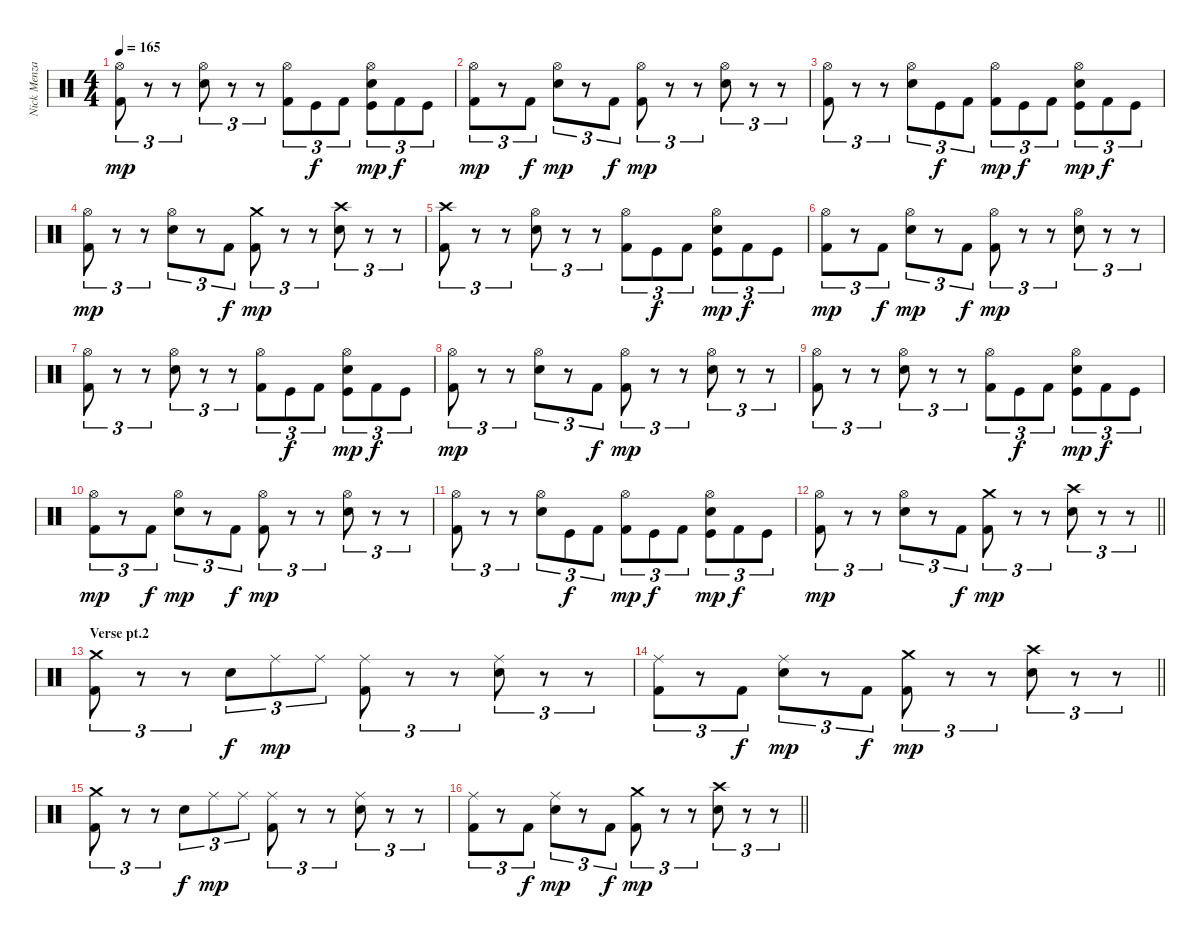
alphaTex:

\track ("Nick Menza" "Nick Menza") {solo instrument percussion}
\staff {score}
\articulation defaults
\ts (4 4)
\tempo 165
\clef neutral
\ks c
("Hi-Hat (open)" "Kick (hit) 2").8{tu (3 2) dy mp} r.8{tu (3 2)} r.8{tu (3 2)} ("Hi-Hat (open)" "Electric Snare (hit)").8{tu (3 2)} r.8{tu (3 2)} r.8{tu (3 2)} ("Hi-Hat (open)" "Kick (hit) 2").8{tu (3 2)} "Kick (hit)".8{tu (3 2) dy f} "Kick (hit) 2".8{tu (3 2)} ("Hi-Hat (open)" "Electric Snare (hit)" "Kick (hit)").8{tu (3 2) dy mp} "Kick (hit) 2".8{tu (3 2) dy f} "Kick (hit)".8{tu (3 2)} |
("Hi-Hat (open)" "Kick (hit) 2").8{tu (3 2) dy mp} r.8{tu (3 2)} "Kick (hit) 2".8{tu (3 2) dy f} ("Hi-Hat (open)" "Electric Snare (hit)").8{tu (3 2) dy mp} r.8{tu (3 2)} "Kick (hit) 2".8{tu (3 2) dy f} ("Hi-Hat (open)" "Kick (hit) 2").8{tu (3 2) dy mp} r.8{tu (3 2)} r.8{tu (3 2)} ("Hi-Hat (open)" "Electric Snare (hit)").8{tu (3 2)} r.8{tu (3 2)} r.8{tu (3 2)} |
("Hi-Hat (open)" "Kick (hit) 2").8{tu (3 2)} r.8{tu (3 2)} r.8{tu (3 2)} ("Hi-Hat (open)" "Electric Snare (hit)").8{tu (3 2)} "Kick (hit)".8{tu (3 2) dy f} "Kick (hit) 2".8{tu (3 2)} ("Hi-Hat (open)" "Kick (hit) 2").8{tu (3 2) dy mp} "Kick (hit)".8{tu (3 2) dy f} "Kick (hit) 2".8{tu (3 2)} ("Hi-Hat (open)" "Electric Snare (hit)" "Kick (hit)").8{tu (3 2) dy mp} "Kick (hit) 2".8{tu (3 2) dy f} "Kick (hit)".8{tu (3 2)} |
("Hi-Hat (open)" "Kick (hit) 2").8{tu (3 2) dy mp} r.8{tu (3 2)} r.8{tu (3 2)} ("Hi-Hat (open)" "Electric Snare (hit)").8{tu (3 2)} r.8{tu (3 2)} "Kick (hit) 2".8{tu (3 2) dy f} ("Crash medium (hit)" "Kick (hit) 2").8{tu (3 2) dy mp} r.8{tu (3 2)} r.8{tu (3 2)} ("Crash high (hit)" "Electric Snare (hit)").8{tu (3 2)} r.8{tu (3 2)} r.8{tu (3 2)} |
("Crash high (hit)" "Kick (hit) 2").8{tu (3 2)} r.8{tu (3 2)} r.8{tu (3 2)} ("Hi-Hat (open)" "Electric Snare (hit)").8{tu (3 2)} r.8{tu (3 2)} r.8{tu (3 2)} ("Hi-Hat (open)" "Kick (hit) 2").8{tu (3 2)} "Kick (hit)".8{tu (3 2) dy f} "Kick (hit) 2".8{tu (3 2)} ("Hi-Hat (open)" "Electric Snare (hit)" "Kick (hit)").8{tu (3 2) dy mp} "Kick (hit) 2".8{tu (3 2) dy f} "Kick (hit)".8{tu (3 2)} |
("Hi-Hat (open)" "Kick (hit) 2").8{tu (3 2) dy mp} r.8{tu (3 2)} "Kick (hit) 2".8{tu (3 2) dy f} ("Hi-Hat (open)" "Electric Snare (hit)").8{tu (3 2) dy mp} r.8{tu (3 2)} "Kick (hit) 2".8{tu (3 2) dy f} ("Hi-Hat (open)" "Kick (hit) 2").8{tu (3 2) dy mp} r.8{tu (3 2)} r.8{tu (3 2)} ("Hi-Hat (open)" "Electric Snare (hit)").8{tu (3 2)} r.8{tu (3 2)} r.8{tu (3 2)} |
("Hi-Hat (open)" "Kick (hit) 2").8{tu (3 2)} r.8{tu (3 2)} r.8{tu (3 2)} ("Hi-Hat (open)" "Electric Snare (hit)").8{tu (3 2)} r.8{tu (3 2)} r.8{tu (3 2)} ("Hi-Hat (open)" "Kick (hit) 2").8{tu (3 2)} "Kick (hit)".8{tu (3 2) dy f} "Kick (hit) 2".8{tu (3 2)} ("Hi-Hat (open)" "Electric Snare (hit)" "Kick (hit)").8{tu (3 2) dy mp} "Kick (hit) 2".8{tu (3 2) dy f} "Kick (hit)".8{tu (3 2)} |
("Hi-Hat (open)" "Kick (hit) 2").8{tu (3 2) dy mp} r.8{tu (3 2)} r.8{tu (3 2)} ("Hi-Hat (open)" "Electric Snare (hit)").8{tu (3 2)} r.8{tu (3 2)} "Kick (hit) 2".8{tu (3 2) dy f} ("Hi-Hat (open)" "Kick (hit) 2").8{tu (3 2) dy mp} r.8{tu (3 2)} r.8{tu (3 2)} ("Hi-Hat (open)" "Electric Snare (hit)").8{tu (3 2)} r.8{tu (3 2)} r.8{tu (3 2)} |
("Hi-Hat (open)" "Kick (hit) 2").8{tu (3 2)} r.8{tu (3 2)} r.8{tu (3 2)} ("Hi-Hat (open)" "Electric Snare (hit)").8{tu (3 2)} r.8{tu (3 2)} r.8{tu (3 2)} ("Hi-Hat (open)" "Kick (hit) 2").8{tu (3 2)} "Kick (hit)".8{tu (3 2) dy f} "Kick (hit) 2".8{tu (3 2)} ("Hi-Hat (open)" "Electric Snare (hit)" "Kick (hit)").8{tu (3 2) dy mp} "Kick (hit) 2".8{tu (3 2) dy f} "Kick (hit)".8{tu (3 2)} |
("Hi-Hat (open)" "Kick (hit) 2").8{tu (3 2) dy mp} r.8{tu (3 2)} "Kick (hit) 2".8{tu (3 2) dy f} ("Hi-Hat (open)" "Electric Snare (hit)").8{tu (3 2) dy mp} r.8{tu (3 2)} "Kick (hit) 2".8{tu (3 2) dy f} ("Hi-Hat (open)" "Kick (hit) 2").8{tu (3 2) dy mp} r.8{tu (3 2)} r.8{tu (3 2)} ("Hi-Hat (open)" "Electric Snare (hit)").8{tu (3 2)} r.8{tu (3 2)} r.8{tu (3 2)} |
("Hi-Hat (open)" "Kick (hit) 2").8{tu (3 2)} r.8{tu (3 2)} r.8{tu (3 2)} ("Hi-Hat (open)" "Electric Snare (hit)").8{tu (3 2)} "Kick (hit)".8{tu (3 2) dy f} "Kick (hit) 2".8{tu (3 2)} ("Hi-Hat (open)" "Kick (hit) 2").8{tu (3 2) dy mp} "Kick (hit)".8{tu (3 2) dy f} "Kick (hit) 2".8{tu (3 2)} ("Hi-Hat (open)" "Electric Snare (hit)" "Kick (hit)").8{tu (3 2) dy mp} "Kick (hit) 2".8{tu (3 2) dy f} "Kick (hit)".8{tu (3 2)} |
\barLineRight lightlight
("Hi-Hat (open)" "Kick (hit) 2").8{tu (3 2) dy mp} r.8{tu (3 2)} r.8{tu (3 2)} ("Hi-Hat (open)" "Electric Snare (hit)").8{tu (3 2)} r.8{tu (3 2)} "Kick (hit) 2".8{tu (3 2) dy f} ("Crash medium (hit)" "Kick (hit) 2").8{tu (3 2) dy mp} r.8{tu (3 2)} r.8{tu (3 2)} ("Crash high (hit)" "Electric Snare (hit)").8{tu (3 2)} r.8{tu (3 2)} r.8{tu (3 2)} |
\section ("" "Verse pt.2")
("Crash medium (hit)" "Kick (hit) 2").8{tu (3 2)} r.8{tu (3 2)} r.8{tu (3 2)} "Electric Snare (hit)".8{tu (3 2) dy f} "Ride (middle)".8{tu (3 2) dy mp} "Ride (middle)".8{tu (3 2)} ("Ride (middle)" "Kick (hit) 2").8{tu (3 2)} r.8{tu (3 2)} r.8{tu (3 2)} ("Ride (middle)" "Electric Snare (hit)").8{tu (3 2)} r.8{tu (3 2)} r.8{tu (3 2)} |
\barLineRight lightlight
("Ride (middle)" "Kick (hit) 2").8{tu (3 2)} r.8{tu (3 2)} "Kick (hit) 2".8{tu (3 2) dy f} ("Ride (middle)" "Electric Snare (hit)").8{tu (3 2) dy mp} r.8{tu (3 2)} "Kick (hit) 2".8{tu (3 2) dy f} ("Crash medium (hit)" "Kick (hit) 2").8{tu (3 2) dy mp} r.8{tu (3 2)} r.8{tu (3 2)} ("Crash high (hit)" "Electric Snare (hit)").8{tu (3 2)} r.8{tu (3 2)} r.8{tu (3 2)} |
("Crash medium (hit)" "Kick (hit) 2").8{tu (3 2)} r.8{tu (3 2)} r.8{tu (3 2)} "Electric Snare (hit)".8{tu (3 2) dy f} "Ride (middle)".8{tu (3 2) dy mp} "Ride (middle)".8{tu (3 2)} ("Ride (middle)" "Kick (hit) 2").8{tu (3 2)} r.8{tu (3 2)} r.8{tu (3 2)} ("Ride (middle)" "Electric Snare (hit)").8{tu (3 2)} r.8{tu (3 2)} r.8{tu (3 2)} |
\barLineRight lightlight
("Ride (middle)" "Kick (hit) 2").8{tu (3 2)} r.8{tu (3 2)} "Kick (hit) 2".8{tu (3 2) dy f} ("Ride (middle)" "Electric Snare (hit)").8{tu (3 2) dy mp} r.8{tu (3 2)} "Kick (hit) 2".8{tu (3 2) dy f} ("Crash medium (hit)" "Kick (hit) 2").8{tu (3 2) dy mp} r.8{tu (3 2)} r.8{tu (3 2)} ("Crash high (hit)" "Electric Snare (hit)").8{tu (3 2)} r.8{tu (3 2)} r.8{tu (3 2)}
